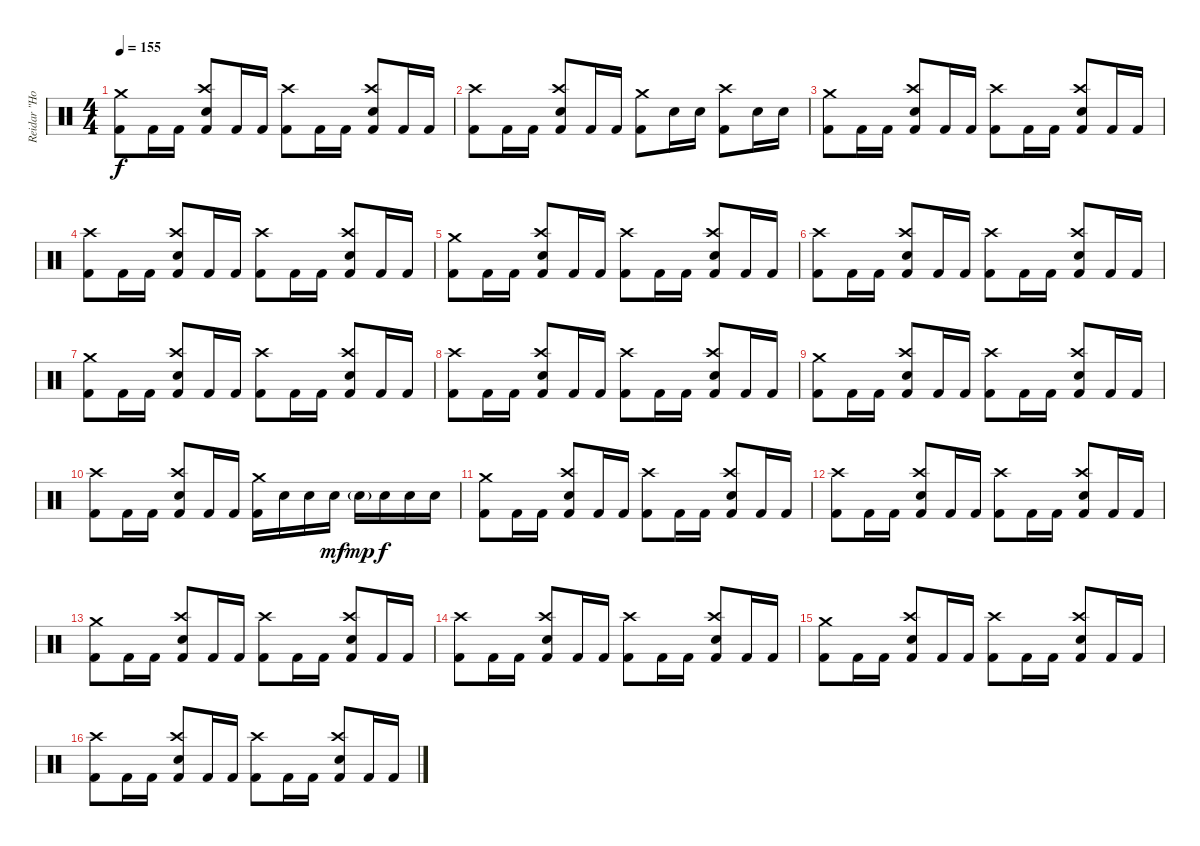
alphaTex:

\track ("Reidar \"Horgh\" Horghagen " "Reidar \"Ho") {instrument percussion}
\staff {score}
\articulation defaults
\ts (4 4)
\tempo 155
\clef neutral
\ks c
("Crash medium (hit)" "Kick (hit) 2").8{dy f} "Kick (hit) 2".16 "Kick (hit) 2".16 ("Crash high (hit)" "Snare (hit) 2" "Kick (hit) 2").8 "Kick (hit) 2".16 "Kick (hit) 2".16 ("Crash high (hit)" "Kick (hit) 2").8 "Kick (hit) 2".16 "Kick (hit) 2".16 ("Crash high (hit)" "Snare (hit) 2" "Kick (hit) 2").8 "Kick (hit) 2".16 "Kick (hit) 2".16 |
("Crash high (hit)" "Kick (hit) 2").8 "Kick (hit) 2".16 "Kick (hit) 2".16 ("Crash high (hit)" "Snare (hit) 2" "Kick (hit) 2").8 "Kick (hit) 2".16 "Kick (hit) 2".16 ("Crash medium (hit)" "Kick (hit) 2").8 "Snare (hit) 2".16 "Snare (hit) 2".16 ("Crash high (hit)" "Kick (hit) 2").8 "Snare (hit) 2".16 "Snare (hit) 2".16 |
("Crash medium (hit)" "Kick (hit) 2").8 "Kick (hit) 2".16 "Kick (hit) 2".16 ("Crash high (hit)" "Snare (hit) 2" "Kick (hit) 2").8 "Kick (hit) 2".16 "Kick (hit) 2".16 ("Crash high (hit)" "Kick (hit) 2").8 "Kick (hit) 2".16 "Kick (hit) 2".16 ("Crash high (hit)" "Snare (hit) 2" "Kick (hit) 2").8 "Kick (hit) 2".16 "Kick (hit) 2".16 |
("Crash high (hit)" "Kick (hit) 2").8 "Kick (hit) 2".16 "Kick (hit) 2".16 ("Crash high (hit)" "Snare (hit) 2" "Kick (hit) 2").8 "Kick (hit) 2".16 "Kick (hit) 2".16 ("Crash high (hit)" "Kick (hit) 2").8 "Kick (hit) 2".16 "Kick (hit) 2".16 ("Crash high (hit)" "Snare (hit) 2" "Kick (hit) 2").8 "Kick (hit) 2".16 "Kick (hit) 2".16 |
("Crash medium (hit)" "Kick (hit) 2").8 "Kick (hit) 2".16 "Kick (hit) 2".16 ("Crash high (hit)" "Snare (hit) 2" "Kick (hit) 2").8 "Kick (hit) 2".16 "Kick (hit) 2".16 ("Crash high (hit)" "Kick (hit) 2").8 "Kick (hit) 2".16 "Kick (hit) 2".16 ("Crash high (hit)" "Snare (hit) 2" "Kick (hit) 2").8 "Kick (hit) 2".16 "Kick (hit) 2".16 |
("Crash high (hit)" "Kick (hit) 2").8 "Kick (hit) 2".16 "Kick (hit) 2".16 ("Crash high (hit)" "Snare (hit) 2" "Kick (hit) 2").8 "Kick (hit) 2".16 "Kick (hit) 2".16 ("Crash high (hit)" "Kick (hit) 2").8 "Kick (hit) 2".16 "Kick (hit) 2".16 ("Crash high (hit)" "Snare (hit) 2" "Kick (hit) 2").8 "Kick (hit) 2".16 "Kick (hit) 2".16 |
("Crash medium (hit)" "Kick (hit) 2").8 "Kick (hit) 2".16 "Kick (hit) 2".16 ("Crash high (hit)" "Snare (hit) 2" "Kick (hit) 2").8 "Kick (hit) 2".16 "Kick (hit) 2".16 ("Crash high (hit)" "Kick (hit) 2").8 "Kick (hit) 2".16 "Kick (hit) 2".16 ("Crash high (hit)" "Snare (hit) 2" "Kick (hit) 2").8 "Kick (hit) 2".16 "Kick (hit) 2".16 |
("Crash high (hit)" "Kick (hit) 2").8 "Kick (hit) 2".16 "Kick (hit) 2".16 ("Crash high (hit)" "Snare (hit) 2" "Kick (hit) 2").8 "Kick (hit) 2".16 "Kick (hit) 2".16 ("Crash high (hit)" "Kick (hit) 2").8 "Kick (hit) 2".16 "Kick (hit) 2".16 ("Crash high (hit)" "Snare (hit) 2" "Kick (hit) 2").8 "Kick (hit) 2".16 "Kick (hit) 2".16 |
("Crash medium (hit)" "Kick (hit) 2").8 "Kick (hit) 2".16 "Kick (hit) 2".16 ("Crash high (hit)" "Snare (hit) 2" "Kick (hit) 2").8 "Kick (hit) 2".16 "Kick (hit) 2".16 ("Crash high (hit)" "Kick (hit) 2").8 "Kick (hit) 2".16 "Kick (hit) 2".16 ("Crash high (hit)" "Snare (hit) 2" "Kick (hit) 2").8 "Kick (hit) 2".16 "Kick (hit) 2".16 |
("Crash high (hit)" "Kick (hit) 2").8 "Kick (hit) 2".16 "Kick (hit) 2".16 ("Crash high (hit)" "Snare (hit) 2" "Kick (hit) 2").8 "Kick (hit) 2".16 "Kick (hit) 2".16 ("Crash medium (hit)" "Kick (hit) 2").16 "Snare (hit) 2".16 "Snare (hit) 2".16 "Snare (hit) 2".16{dy mf} "Snare (hit) 2"{g}.16{dy mp} "Snare (hit) 2".16{dy f} "Snare (hit) 2".16 "Snare (hit) 2".16 |
("Crash medium (hit)" "Kick (hit) 2").8 "Kick (hit) 2".16 "Kick (hit) 2".16 ("Crash high (hit)" "Snare (hit) 2" "Kick (hit) 2").8 "Kick (hit) 2".16 "Kick (hit) 2".16 ("Crash high (hit)" "Kick (hit) 2").8 "Kick (hit) 2".16 "Kick (hit) 2".16 ("Crash high (hit)" "Snare (hit) 2" "Kick (hit) 2").8 "Kick (hit) 2".16 "Kick (hit) 2".16 |
("Crash high (hit)" "Kick (hit) 2").8 "Kick (hit) 2".16 "Kick (hit) 2".16 ("Crash high (hit)" "Snare (hit) 2" "Kick (hit) 2").8 "Kick (hit) 2".16 "Kick (hit) 2".16 ("Crash high (hit)" "Kick (hit) 2").8 "Kick (hit) 2".16 "Kick (hit) 2".16 ("Crash high (hit)" "Snare (hit) 2" "Kick (hit) 2").8 "Kick (hit) 2".16 "Kick (hit) 2".16 |
("Crash medium (hit)" "Kick (hit) 2").8 "Kick (hit) 2".16 "Kick (hit) 2".16 ("Crash high (hit)" "Snare (hit) 2" "Kick (hit) 2").8 "Kick (hit) 2".16 "Kick (hit) 2".16 ("Crash high (hit)" "Kick (hit) 2").8 "Kick (hit) 2".16 "Kick (hit) 2".16 ("Crash high (hit)" "Snare (hit) 2" "Kick (hit) 2").8 "Kick (hit) 2".16 "Kick (hit) 2".16 |
("Crash high (hit)" "Kick (hit) 2").8 "Kick (hit) 2".16 "Kick (hit) 2".16 ("Crash high (hit)" "Snare (hit) 2" "Kick (hit) 2").8 "Kick (hit) 2".16 "Kick (hit) 2".16 ("Crash high (hit)" "Kick (hit) 2").8 "Kick (hit) 2".16 "Kick (hit) 2".16 ("Crash high (hit)" "Snare (hit) 2" "Kick (hit) 2").8 "Kick (hit) 2".16 "Kick (hit) 2".16 |
("Crash medium (hit)" "Kick (hit) 2").8 "Kick (hit) 2".16 "Kick (hit) 2".16 ("Crash high (hit)" "Snare (hit) 2" "Kick (hit) 2").8 "Kick (hit) 2".16 "Kick (hit) 2".16 ("Crash high (hit)" "Kick (hit) 2").8 "Kick (hit) 2".16 "Kick (hit) 2".16 ("Crash high (hit)" "Snare (hit) 2" "Kick (hit) 2").8 "Kick (hit) 2".16 "Kick (hit) 2".16 |
("Crash high (hit)" "Kick (hit) 2").8 "Kick (hit) 2".16 "Kick (hit) 2".16 ("Crash high (hit)" "Snare (hit) 2" "Kick (hit) 2").8 "Kick (hit) 2".16 "Kick (hit) 2".16 ("Crash high (hit)" "Kick (hit) 2").8 "Kick (hit) 2".16 "Kick (hit) 2".16 ("Crash high (hit)" "Snare (hit) 2" "Kick (hit) 2").8 "Kick (hit) 2".16 "Kick (hit) 2".16
